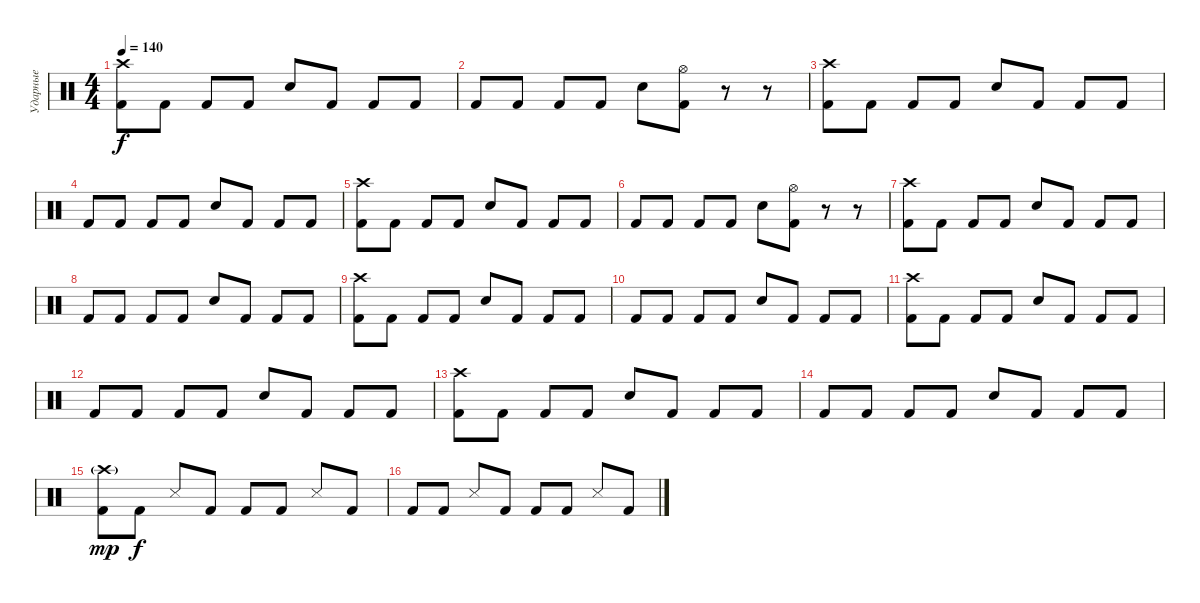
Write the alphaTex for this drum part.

\track ("Ударные" "Ударные") {instrument percussion}
\staff {score}
\articulation defaults
\ts (4 4)
\tempo 140
\clef neutral
\ks c
("Crash high (hit)" "Kick (hit) 2").8{dy f} "Kick (hit) 2".8 "Kick (hit) 2".8 "Kick (hit) 2".8 "Electric Snare (hit)".8 "Kick (hit) 2".8 "Kick (hit) 2".8 "Kick (hit) 2".8 |
"Kick (hit) 2".8 "Kick (hit) 2".8 "Kick (hit) 2".8 "Kick (hit) 2".8 "Electric Snare (hit)".8 ("Hi-Hat (open)" "Kick (hit) 2").8 r.8 r.8 |
("Crash high (hit)" "Kick (hit) 2").8 "Kick (hit) 2".8 "Kick (hit) 2".8 "Kick (hit) 2".8 "Electric Snare (hit)".8 "Kick (hit) 2".8 "Kick (hit) 2".8 "Kick (hit) 2".8 |
"Kick (hit) 2".8 "Kick (hit) 2".8 "Kick (hit) 2".8 "Kick (hit) 2".8 "Electric Snare (hit)".8 "Kick (hit) 2".8 "Kick (hit) 2".8 "Kick (hit) 2".8 |
("Crash high (hit)" "Kick (hit) 2").8 "Kick (hit) 2".8 "Kick (hit) 2".8 "Kick (hit) 2".8 "Electric Snare (hit)".8 "Kick (hit) 2".8 "Kick (hit) 2".8 "Kick (hit) 2".8 |
"Kick (hit) 2".8 "Kick (hit) 2".8 "Kick (hit) 2".8 "Kick (hit) 2".8 "Electric Snare (hit)".8 ("Hi-Hat (open)" "Kick (hit) 2").8 r.8 r.8 |
("Crash high (hit)" "Kick (hit) 2").8 "Kick (hit) 2".8 "Kick (hit) 2".8 "Kick (hit) 2".8 "Electric Snare (hit)".8 "Kick (hit) 2".8 "Kick (hit) 2".8 "Kick (hit) 2".8 |
"Kick (hit) 2".8 "Kick (hit) 2".8 "Kick (hit) 2".8 "Kick (hit) 2".8 "Electric Snare (hit)".8 "Kick (hit) 2".8 "Kick (hit) 2".8 "Kick (hit) 2".8 |
("Crash high (hit)" "Kick (hit) 2").8 "Kick (hit) 2".8 "Kick (hit) 2".8 "Kick (hit) 2".8 "Electric Snare (hit)".8 "Kick (hit) 2".8 "Kick (hit) 2".8 "Kick (hit) 2".8 |
"Kick (hit) 2".8 "Kick (hit) 2".8 "Kick (hit) 2".8 "Kick (hit) 2".8 "Electric Snare (hit)".8 "Kick (hit) 2".8 "Kick (hit) 2".8 "Kick (hit) 2".8 |
("Crash high (hit)" "Kick (hit) 2").8 "Kick (hit) 2".8 "Kick (hit) 2".8 "Kick (hit) 2".8 "Electric Snare (hit)".8 "Kick (hit) 2".8 "Kick (hit) 2".8 "Kick (hit) 2".8 |
"Kick (hit) 2".8 "Kick (hit) 2".8 "Kick (hit) 2".8 "Kick (hit) 2".8 "Electric Snare (hit)".8 "Kick (hit) 2".8 "Kick (hit) 2".8 "Kick (hit) 2".8 |
("Crash high (hit)" "Kick (hit) 2").8 "Kick (hit) 2".8 "Kick (hit) 2".8 "Kick (hit) 2".8 "Electric Snare (hit)".8 "Kick (hit) 2".8 "Kick (hit) 2".8 "Kick (hit) 2".8 |
"Kick (hit) 2".8 "Kick (hit) 2".8 "Kick (hit) 2".8 "Kick (hit) 2".8 "Electric Snare (hit)".8 "Kick (hit) 2".8 "Kick (hit) 2".8 "Kick (hit) 2".8 |
("Crash high (hit)"{g} "Kick (hit) 2").8{dy mp} "Kick (hit) 2".8{dy f} "Snare (side stick) 3".8 "Kick (hit) 2".8 "Kick (hit) 2".8 "Kick (hit) 2".8 "Snare (side stick) 3".8 "Kick (hit) 2".8 |
"Kick (hit) 2".8 "Kick (hit) 2".8 "Snare (side stick) 3".8 "Kick (hit) 2".8 "Kick (hit) 2".8 "Kick (hit) 2".8 "Snare (side stick) 3".8 "Kick (hit) 2".8
